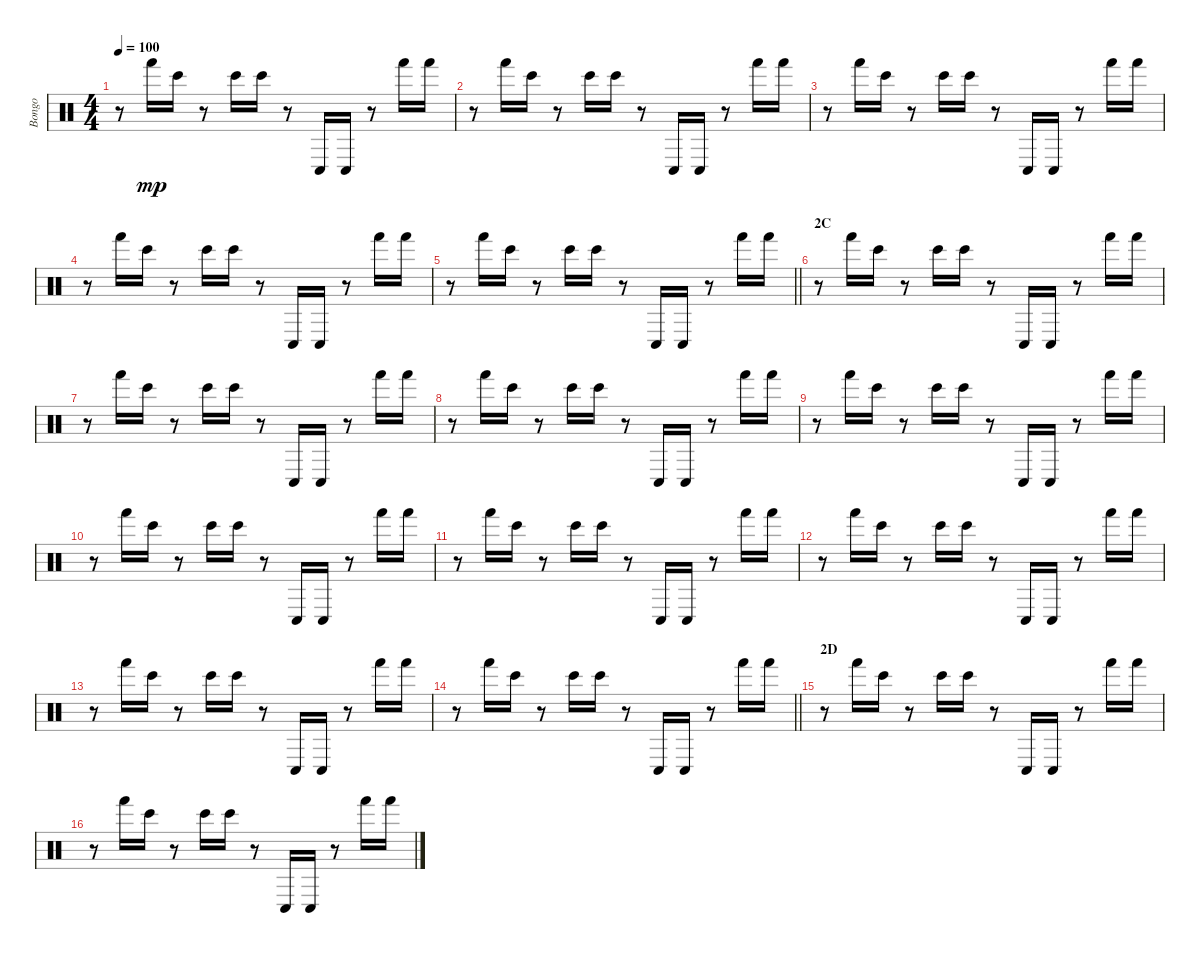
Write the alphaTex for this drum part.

\track ("Bongo" "Bongo") {instrument percussion}
\staff {score}
\articulation defaults
\ts (4 4)
\tempo 100
\clef neutral
\ks c
r.8{dy mp} "Hand (hit)".16 "Bongo High (hit)".16 r.8 "Bongo High (hit)".16 "Bongo High (hit)".16 r.8 "Conga low (hit)".16 "Conga low (hit)".16 r.8 "Hand (hit)".16 "Hand (hit)".16 |
r.8 "Hand (hit)".16 "Bongo High (hit)".16 r.8 "Bongo High (hit)".16 "Bongo High (hit)".16 r.8 "Conga low (hit)".16 "Conga low (hit)".16 r.8 "Hand (hit)".16 "Hand (hit)".16 |
r.8 "Hand (hit)".16 "Bongo High (hit)".16 r.8 "Bongo High (hit)".16 "Bongo High (hit)".16 r.8 "Conga low (hit)".16 "Conga low (hit)".16 r.8 "Hand (hit)".16 "Hand (hit)".16 |
r.8 "Hand (hit)".16 "Bongo High (hit)".16 r.8 "Bongo High (hit)".16 "Bongo High (hit)".16 r.8 "Conga low (hit)".16 "Conga low (hit)".16 r.8 "Hand (hit)".16 "Hand (hit)".16 |
\barLineRight lightlight
r.8 "Hand (hit)".16 "Bongo High (hit)".16 r.8 "Bongo High (hit)".16 "Bongo High (hit)".16 r.8 "Conga low (hit)".16 "Conga low (hit)".16 r.8 "Hand (hit)".16 "Hand (hit)".16 |
\section ("" "2C")
r.8 "Hand (hit)".16 "Bongo High (hit)".16 r.8 "Bongo High (hit)".16 "Bongo High (hit)".16 r.8 "Conga low (hit)".16 "Conga low (hit)".16 r.8 "Hand (hit)".16 "Hand (hit)".16 |
r.8 "Hand (hit)".16 "Bongo High (hit)".16 r.8 "Bongo High (hit)".16 "Bongo High (hit)".16 r.8 "Conga low (hit)".16 "Conga low (hit)".16 r.8 "Hand (hit)".16 "Hand (hit)".16 |
r.8 "Hand (hit)".16 "Bongo High (hit)".16 r.8 "Bongo High (hit)".16 "Bongo High (hit)".16 r.8 "Conga low (hit)".16 "Conga low (hit)".16 r.8 "Hand (hit)".16 "Hand (hit)".16 |
r.8 "Hand (hit)".16 "Bongo High (hit)".16 r.8 "Bongo High (hit)".16 "Bongo High (hit)".16 r.8 "Conga low (hit)".16 "Conga low (hit)".16 r.8 "Hand (hit)".16 "Hand (hit)".16 |
r.8 "Hand (hit)".16 "Bongo High (hit)".16 r.8 "Bongo High (hit)".16 "Bongo High (hit)".16 r.8 "Conga low (hit)".16 "Conga low (hit)".16 r.8 "Hand (hit)".16 "Hand (hit)".16 |
r.8 "Hand (hit)".16 "Bongo High (hit)".16 r.8 "Bongo High (hit)".16 "Bongo High (hit)".16 r.8 "Conga low (hit)".16 "Conga low (hit)".16 r.8 "Hand (hit)".16 "Hand (hit)".16 |
r.8 "Hand (hit)".16 "Bongo High (hit)".16 r.8 "Bongo High (hit)".16 "Bongo High (hit)".16 r.8 "Conga low (hit)".16 "Conga low (hit)".16 r.8 "Hand (hit)".16 "Hand (hit)".16 |
r.8 "Hand (hit)".16 "Bongo High (hit)".16 r.8 "Bongo High (hit)".16 "Bongo High (hit)".16 r.8 "Conga low (hit)".16 "Conga low (hit)".16 r.8 "Hand (hit)".16 "Hand (hit)".16 |
\barLineRight lightlight
r.8 "Hand (hit)".16 "Bongo High (hit)".16 r.8 "Bongo High (hit)".16 "Bongo High (hit)".16 r.8 "Conga low (hit)".16 "Conga low (hit)".16 r.8 "Hand (hit)".16 "Hand (hit)".16 |
\section ("" "2D")
r.8 "Hand (hit)".16 "Bongo High (hit)".16 r.8 "Bongo High (hit)".16 "Bongo High (hit)".16 r.8 "Conga low (hit)".16 "Conga low (hit)".16 r.8 "Hand (hit)".16 "Hand (hit)".16 |
r.8 "Hand (hit)".16 "Bongo High (hit)".16 r.8 "Bongo High (hit)".16 "Bongo High (hit)".16 r.8 "Conga low (hit)".16 "Conga low (hit)".16 r.8 "Hand (hit)".16 "Hand (hit)".16
